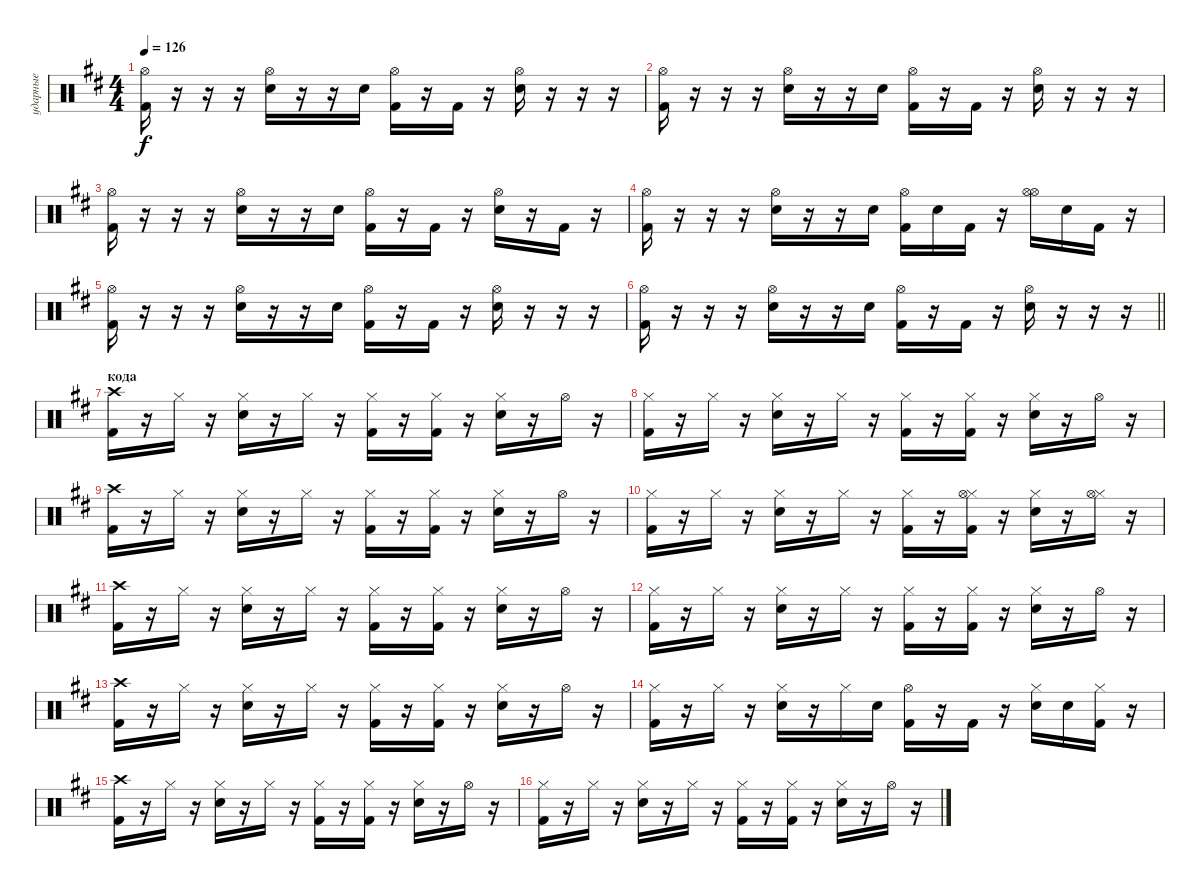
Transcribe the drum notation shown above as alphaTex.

\track ("ударные" "ударные") {instrument percussion}
\staff {score}
\articulation defaults
\ts (4 4)
\tempo 126
\clef neutral
\ks d
("Hi-Hat (open)" "Kick (hit) 2").16{dy f} r.16 r.16 r.16 ("Hi-Hat (open)" "Electric Snare (hit)").16 r.16 r.16 "Electric Snare (hit)".16 ("Hi-Hat (open)" "Kick (hit) 2").16 r.16 "Kick (hit) 2".16 r.16 ("Hi-Hat (open)" "Electric Snare (hit)").16 r.16 r.16 r.16 |
("Hi-Hat (open)" "Kick (hit) 2").16 r.16 r.16 r.16 ("Hi-Hat (open)" "Electric Snare (hit)").16 r.16 r.16 "Electric Snare (hit)".16 ("Hi-Hat (open)" "Kick (hit) 2").16 r.16 "Kick (hit) 2".16 r.16 ("Hi-Hat (open)" "Electric Snare (hit)").16 r.16 r.16 r.16 |
("Hi-Hat (open)" "Kick (hit) 2").16 r.16 r.16 r.16 ("Hi-Hat (open)" "Electric Snare (hit)").16 r.16 r.16 "Electric Snare (hit)".16 ("Hi-Hat (open)" "Kick (hit) 2").16 r.16 "Kick (hit) 2".16 r.16 ("Hi-Hat (open)" "Electric Snare (hit)").16 r.16 "Kick (hit) 2".16 r.16 |
("Hi-Hat (open)" "Kick (hit) 2").16 r.16 r.16 r.16 ("Hi-Hat (open)" "Electric Snare (hit)").16 r.16 r.16 "Electric Snare (hit)".16 ("Hi-Hat (open)" "Kick (hit) 2").16 "Electric Snare (hit)".16 "Kick (hit) 2".16 r.16 ("Hi-Hat (open)" "Hi-Hat (open)").16 "Electric Snare (hit)".16 "Kick (hit) 2".16 r.16 |
("Hi-Hat (open)" "Kick (hit) 2").16 r.16 r.16 r.16 ("Hi-Hat (open)" "Electric Snare (hit)").16 r.16 r.16 "Electric Snare (hit)".16 ("Hi-Hat (open)" "Kick (hit) 2").16 r.16 "Kick (hit) 2".16 r.16 ("Hi-Hat (open)" "Electric Snare (hit)").16 r.16 r.16 r.16 |
\barLineRight lightlight
("Hi-Hat (open)" "Kick (hit) 2").16 r.16 r.16 r.16 ("Hi-Hat (open)" "Electric Snare (hit)").16 r.16 r.16 "Electric Snare (hit)".16 ("Hi-Hat (open)" "Kick (hit) 2").16 r.16 "Kick (hit) 2".16 r.16 ("Hi-Hat (open)" "Electric Snare (hit)").16 r.16 r.16 r.16 |
\section ("" "кода")
("Crash high (hit)" "Kick (hit) 2").16 r.16 "Hi-Hat (closed)".16 r.16 ("Hi-Hat (closed)" "Electric Snare (hit)").16 r.16 "Hi-Hat (closed)".16 r.16 ("Hi-Hat (closed)" "Kick (hit) 2").16 r.16 ("Hi-Hat (closed)" "Kick (hit) 2").16 r.16 ("Hi-Hat (closed)" "Electric Snare (hit)").16 r.16 "Hi-Hat (open)".16 r.16 |
("Hi-Hat (closed)" "Kick (hit) 2").16 r.16 "Hi-Hat (closed)".16 r.16 ("Hi-Hat (closed)" "Electric Snare (hit)").16 r.16 "Hi-Hat (closed)".16 r.16 ("Hi-Hat (closed)" "Kick (hit) 2").16 r.16 ("Hi-Hat (closed)" "Kick (hit) 2").16 r.16 ("Hi-Hat (closed)" "Electric Snare (hit)").16 r.16 "Hi-Hat (open)".16 r.16 |
("Crash high (hit)" "Kick (hit) 2").16 r.16 "Hi-Hat (closed)".16 r.16 ("Hi-Hat (closed)" "Electric Snare (hit)").16 r.16 "Hi-Hat (closed)".16 r.16 ("Hi-Hat (closed)" "Kick (hit) 2").16 r.16 ("Hi-Hat (closed)" "Kick (hit) 2").16 r.16 ("Hi-Hat (closed)" "Electric Snare (hit)").16 r.16 "Hi-Hat (open)".16 r.16 |
("Hi-Hat (closed)" "Kick (hit) 2").16 r.16 "Hi-Hat (closed)".16 r.16 ("Hi-Hat (closed)" "Electric Snare (hit)").16 r.16 "Hi-Hat (closed)".16 r.16 ("Hi-Hat (closed)" "Kick (hit) 2").16 r.16 ("Hi-Hat (closed)" "Hi-Hat (open)" "Kick (hit) 2").16 r.16 ("Hi-Hat (closed)" "Electric Snare (hit)").16 r.16 ("Hi-Hat (closed)" "Hi-Hat (open)").16 r.16 |
("Crash high (hit)" "Kick (hit) 2").16 r.16 "Hi-Hat (closed)".16 r.16 ("Hi-Hat (closed)" "Electric Snare (hit)").16 r.16 "Hi-Hat (closed)".16 r.16 ("Hi-Hat (closed)" "Kick (hit) 2").16 r.16 ("Hi-Hat (closed)" "Kick (hit) 2").16 r.16 ("Hi-Hat (closed)" "Electric Snare (hit)").16 r.16 "Hi-Hat (open)".16 r.16 |
("Hi-Hat (closed)" "Kick (hit) 2").16 r.16 "Hi-Hat (closed)".16 r.16 ("Hi-Hat (closed)" "Electric Snare (hit)").16 r.16 "Hi-Hat (closed)".16 r.16 ("Hi-Hat (closed)" "Kick (hit) 2").16 r.16 ("Hi-Hat (closed)" "Kick (hit) 2").16 r.16 ("Hi-Hat (closed)" "Electric Snare (hit)").16 r.16 "Hi-Hat (open)".16 r.16 |
("Crash high (hit)" "Kick (hit) 2").16 r.16 "Hi-Hat (closed)".16 r.16 ("Hi-Hat (closed)" "Electric Snare (hit)").16 r.16 "Hi-Hat (closed)".16 r.16 ("Hi-Hat (closed)" "Kick (hit) 2").16 r.16 ("Hi-Hat (closed)" "Kick (hit) 2").16 r.16 ("Hi-Hat (closed)" "Electric Snare (hit)").16 r.16 "Hi-Hat (open)".16 r.16 |
("Hi-Hat (closed)" "Kick (hit) 2").16 r.16 "Hi-Hat (closed)".16 r.16 ("Hi-Hat (closed)" "Electric Snare (hit)").16 r.16 "Hi-Hat (closed)".16 "Electric Snare (hit)".16 ("Hi-Hat (open)" "Kick (hit) 2").16 r.16 "Kick (hit) 2".16 r.16 ("Hi-Hat (closed)" "Electric Snare (hit)").16 "Electric Snare (hit)".16 ("Hi-Hat (closed)" "Kick (hit) 2").16 r.16 |
("Crash high (hit)" "Kick (hit) 2").16 r.16 "Hi-Hat (closed)".16 r.16 ("Hi-Hat (closed)" "Electric Snare (hit)").16 r.16 "Hi-Hat (closed)".16 r.16 ("Hi-Hat (closed)" "Kick (hit) 2").16 r.16 ("Hi-Hat (closed)" "Kick (hit) 2").16 r.16 ("Hi-Hat (closed)" "Electric Snare (hit)").16 r.16 "Hi-Hat (open)".16 r.16 |
("Hi-Hat (closed)" "Kick (hit) 2").16 r.16 "Hi-Hat (closed)".16 r.16 ("Hi-Hat (closed)" "Electric Snare (hit)").16 r.16 "Hi-Hat (closed)".16 r.16 ("Hi-Hat (closed)" "Kick (hit) 2").16 r.16 ("Hi-Hat (closed)" "Kick (hit) 2").16 r.16 ("Hi-Hat (closed)" "Electric Snare (hit)").16 r.16 "Hi-Hat (open)".16 r.16
